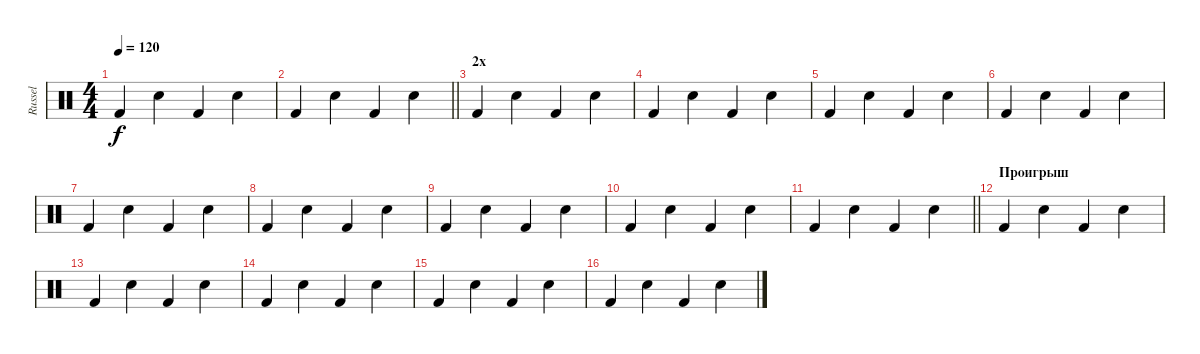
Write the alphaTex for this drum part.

\track ("Russel" "Russel") {instrument percussion}
\staff {score}
\articulation defaults
\ts (4 4)
\tempo 120
\clef neutral
\ks c "Kick (hit) 2".4{dy f} "Hand Clap (hit)".4 "Kick (hit) 2".4 "Hand Clap (hit)".4
|
\barLineRight lightlight "Kick (hit) 2".4 "Hand Clap (hit)".4 "Kick (hit) 2".4 "Hand Clap (hit)".4
|
\section ("" "2х")
"Kick (hit) 2".4 "Hand Clap (hit)".4 "Kick (hit) 2".4 "Hand Clap (hit)".4 |
"Kick (hit) 2".4 "Hand Clap (hit)".4 "Kick (hit) 2".4 "Hand Clap (hit)".4 |
"Kick (hit) 2".4 "Hand Clap (hit)".4 "Kick (hit) 2".4 "Hand Clap (hit)".4 |
"Kick (hit) 2".4 "Hand Clap (hit)".4 "Kick (hit) 2".4 "Hand Clap (hit)".4 |
"Kick (hit) 2".4 "Hand Clap (hit)".4 "Kick (hit) 2".4 "Hand Clap (hit)".4 |
"Kick (hit) 2".4 "Hand Clap (hit)".4 "Kick (hit) 2".4 "Hand Clap (hit)".4 |
"Kick (hit) 2".4 "Hand Clap (hit)".4 "Kick (hit) 2".4 "Hand Clap (hit)".4 |
"Kick (hit) 2".4 "Hand Clap (hit)".4 "Kick (hit) 2".4 "Hand Clap (hit)".4 |
\barLineRight lightlight "Kick (hit) 2".4 "Hand Clap (hit)".4 "Kick (hit) 2".4 "Hand Clap (hit)".4
|
\section ("" "Проигрыш")
"Kick (hit) 2".4 "Hand Clap (hit)".4 "Kick (hit) 2".4 "Hand Clap (hit)".4 |
"Kick (hit) 2".4 "Hand Clap (hit)".4 "Kick (hit) 2".4 "Hand Clap (hit)".4 |
"Kick (hit) 2".4 "Hand Clap (hit)".4 "Kick (hit) 2".4 "Hand Clap (hit)".4 |
"Kick (hit) 2".4 "Hand Clap (hit)".4 "Kick (hit) 2".4 "Hand Clap (hit)".4 |
"Kick (hit) 2".4 "Hand Clap (hit)".4 "Kick (hit) 2".4 "Hand Clap (hit)".4
